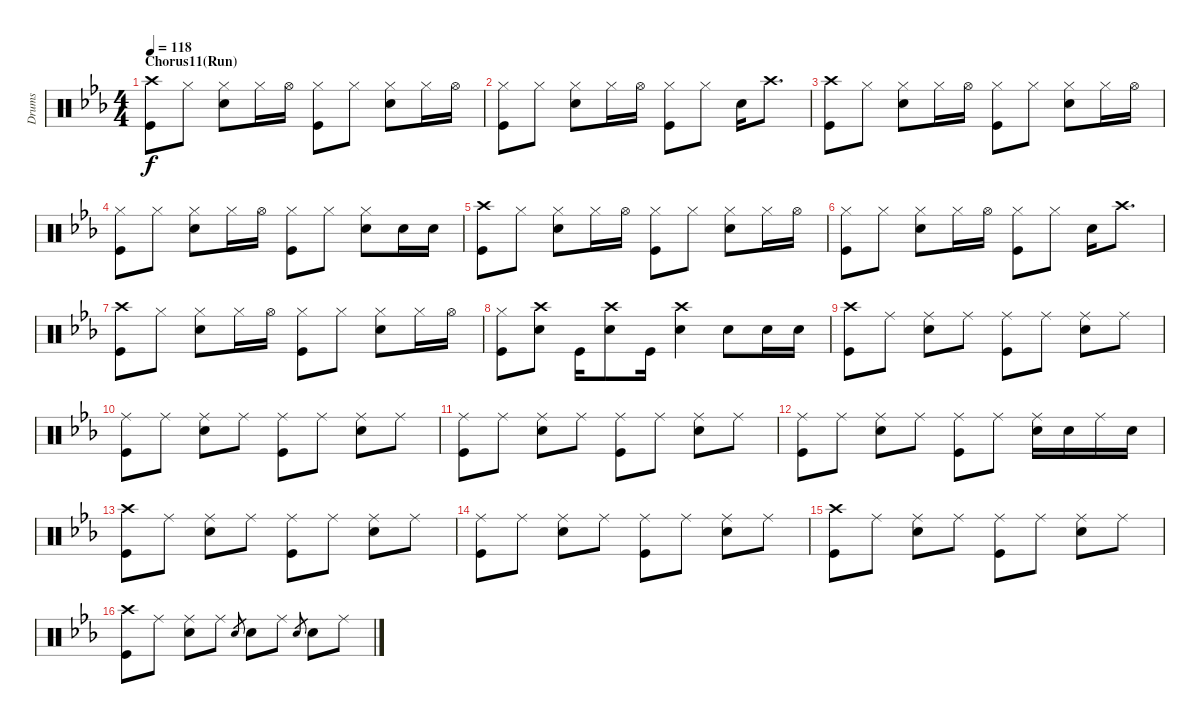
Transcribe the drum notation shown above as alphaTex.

\track ("Drums" "Drums") {instrument percussion}
\staff {score}
\articulation defaults
\ts (4 4)
\section ("" "Chorus11(Run)")
\tempo 118
\clef neutral
\ks cminor
("Crash high (hit)" "Kick (hit)").8{dy f} "Hi-Hat (closed)".8 ("Hi-Hat (closed)" "Snare (hit) 2").8 "Hi-Hat (closed)".16 "Hi-Hat (open)".16 ("Hi-Hat (closed)" "Kick (hit)").8 "Hi-Hat (closed)".8 ("Hi-Hat (closed)" "Snare (hit) 2").8 "Hi-Hat (closed)".16 "Hi-Hat (open)".16 |
("Hi-Hat (closed)" "Kick (hit)").8 "Hi-Hat (closed)".8 ("Hi-Hat (closed)" "Snare (hit) 2").8 "Hi-Hat (closed)".16 "Hi-Hat (open)".16 ("Hi-Hat (closed)" "Kick (hit)").8 "Hi-Hat (closed)".8 "Snare (hit) 2".16 "Crash high (hit)".8{d} |
("Crash high (hit)" "Kick (hit)").8 "Hi-Hat (closed)".8 ("Hi-Hat (closed)" "Snare (hit) 2").8 "Hi-Hat (closed)".16 "Hi-Hat (open)".16 ("Hi-Hat (closed)" "Kick (hit)").8 "Hi-Hat (closed)".8 ("Hi-Hat (closed)" "Snare (hit) 2").8 "Hi-Hat (closed)".16 "Hi-Hat (open)".16 |
("Hi-Hat (closed)" "Kick (hit)").8 "Hi-Hat (closed)".8 ("Hi-Hat (closed)" "Snare (hit) 2").8 "Hi-Hat (closed)".16 "Hi-Hat (open)".16 ("Hi-Hat (closed)" "Kick (hit)").8 "Hi-Hat (closed)".8 ("Hi-Hat (closed)" "Snare (hit) 2").8 "Snare (hit) 2".16 "Snare (hit) 2".16 |
("Crash high (hit)" "Kick (hit)").8 "Hi-Hat (closed)".8 ("Hi-Hat (closed)" "Snare (hit) 2").8 "Hi-Hat (closed)".16 "Hi-Hat (open)".16 ("Hi-Hat (closed)" "Kick (hit)").8 "Hi-Hat (closed)".8 ("Hi-Hat (closed)" "Snare (hit) 2").8 "Hi-Hat (closed)".16 "Hi-Hat (open)".16 |
("Hi-Hat (closed)" "Kick (hit)").8 "Hi-Hat (closed)".8 ("Hi-Hat (closed)" "Snare (hit) 2").8 "Hi-Hat (closed)".16 "Hi-Hat (open)".16 ("Hi-Hat (closed)" "Kick (hit)").8 "Hi-Hat (closed)".8 "Snare (hit) 2".16 "Crash high (hit)".8{d} |
("Crash high (hit)" "Kick (hit)").8 "Hi-Hat (closed)".8 ("Hi-Hat (closed)" "Snare (hit) 2").8 "Hi-Hat (closed)".16 "Hi-Hat (open)".16 ("Hi-Hat (closed)" "Kick (hit)").8 "Hi-Hat (closed)".8 ("Hi-Hat (closed)" "Snare (hit) 2").8 "Hi-Hat (closed)".16 "Hi-Hat (open)".16 |
("Kick (hit)" "Hi-Hat (closed)").8 ("Crash high (hit)" "Snare (hit) 2").8 "Kick (hit)".16 ("Snare (hit) 2" "Crash high (hit)").8 "Kick (hit)".16 ("Snare (hit) 2" "Crash high (hit)").4 "Snare (hit) 2".8 "Snare (hit) 2".16 "Snare (hit) 2".16 |
("Crash high (hit)" "Kick (hit)").8 "Ride (middle)".8 ("Ride (middle)" "Snare (hit) 2").8 "Ride (middle)".8 ("Ride (middle)" "Kick (hit)").8 "Ride (middle)".8 ("Snare (hit) 2" "Ride (middle)").8 "Ride (middle)".8 |
("Ride (middle)" "Kick (hit)").8 "Ride (middle)".8 ("Ride (middle)" "Snare (hit) 2").8 "Ride (middle)".8 ("Ride (middle)" "Kick (hit)").8 "Ride (middle)".8 ("Ride (middle)" "Snare (hit) 2").8 "Ride (middle)".8 |
("Ride (middle)" "Kick (hit)").8 "Ride (middle)".8 ("Ride (middle)" "Snare (hit) 2").8 "Ride (middle)".8 ("Ride (middle)" "Kick (hit)").8 "Ride (middle)".8 ("Ride (middle)" "Snare (hit) 2").8 "Ride (middle)".8 |
("Ride (middle)" "Kick (hit)").8 "Ride (middle)".8 ("Ride (middle)" "Snare (hit) 2").8 "Ride (middle)".8 ("Ride (middle)" "Kick (hit)").8 "Ride (middle)".8 ("Ride (middle)" "Snare (hit) 2").16 "Snare (hit) 2".16 "Ride (middle)".16 "Snare (hit) 2".16 |
("Crash high (hit)" "Kick (hit)").8 "Ride (middle)".8 ("Ride (middle)" "Snare (hit) 2").8 "Ride (middle)".8 ("Ride (middle)" "Kick (hit)").8 "Ride (middle)".8 ("Snare (hit) 2" "Ride (middle)").8 "Ride (middle)".8 |
("Ride (middle)" "Kick (hit)").8 "Ride (middle)".8 ("Ride (middle)" "Snare (hit) 2").8 "Ride (middle)".8 ("Ride (middle)" "Kick (hit)").8 "Ride (middle)".8 ("Ride (middle)" "Snare (hit) 2").8 "Ride (middle)".8 |
("Crash high (hit)" "Kick (hit)").8 "Ride (middle)".8 ("Ride (middle)" "Snare (hit) 2").8 "Ride (middle)".8 ("Ride (middle)" "Kick (hit)").8 "Ride (middle)".8 ("Snare (hit) 2" "Ride (middle)").8 "Ride (middle)".8 |
("Crash high (hit)" "Kick (hit)").8 "Ride (middle)".8 ("Ride (middle)" "Snare (hit) 2").8 "Ride (middle)".8 "Snare (hit) 2".8{gr} "Snare (hit) 2".8 "Ride (middle)".8 "Snare (hit) 2".8{gr} "Snare (hit) 2".8 "Ride (middle)".8
